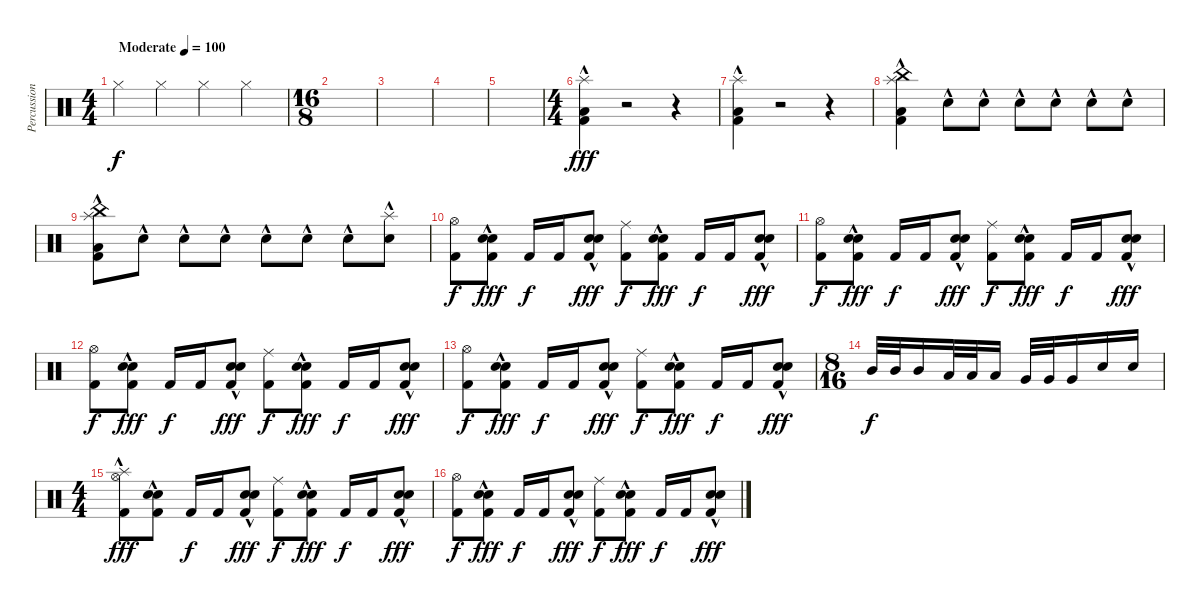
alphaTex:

\track ("Percussion" "Percussion") {instrument percussion}
\staff {score}
\articulation defaults
\ts (4 4)
\tempo (100 "Moderate")
\clef neutral
\ks c "Hi-Hat (closed)".4{dy f} "Hi-Hat (closed)".4 "Hi-Hat (closed)".4 "Hi-Hat (closed)".4
|
\ts (16 8)
|
|
|
|
\ts (4 4)
("Low Tom (hit)"{hac} "Kick (hit) 2"{hac} "Splash (hit)"{hac}).4{dy fff} r.2 r.4 |
("Low Tom (hit)"{hac} "Kick (hit) 2"{hac} "Splash (hit)"{hac}).4 r.2 r.4 |
("China (hit)"{hac} "Splash (hit)"{hac} "Kick (hit) 2"{hac} "Low Tom (hit)"{hac}).4 "Snare (hit) 2"{hac}.8 "Snare (hit) 2"{hac}.8 "Snare (hit) 2"{hac}.8 "Snare (hit) 2"{hac}.8 "Snare (hit) 2"{hac}.8 "Snare (hit) 2"{hac}.8 |
("China (hit)"{hac} "Splash (hit)"{hac} "Kick (hit) 2"{hac} "Low Tom (hit)"{hac}).8 "Snare (hit) 2"{hac}.8 "Snare (hit) 2"{hac}.8 "Snare (hit) 2"{hac}.8 "Snare (hit) 2"{hac}.8 "Snare (hit) 2"{hac}.8 "Snare (hit) 2"{hac}.8 ("Splash (hit)"{hac} "Snare (hit) 2"{hac}).8 |
("Hi-Hat (open)" "Kick (hit) 2").8{dy f} ("Electric Snare (hit)"{hac} "Snare (hit) 2"{hac} "Kick (hit) 2").8{dy fff} "Kick (hit) 2".16{dy f} "Kick (hit) 2".16 ("Electric Snare (hit)"{hac} "Snare (hit) 2"{hac} "Kick (hit) 2").8{dy fff} ("Ride (middle)" "Kick (hit) 2").8{dy f} ("Electric Snare (hit)"{hac} "Snare (hit) 2"{hac} "Kick (hit) 2").8{dy fff} "Kick (hit) 2".16{dy f} "Kick (hit) 2".16 ("Electric Snare (hit)"{hac} "Snare (hit) 2"{hac} "Kick (hit) 2").8{dy fff} |
("Hi-Hat (open)" "Kick (hit) 2").8{dy f} ("Electric Snare (hit)"{hac} "Snare (hit) 2"{hac} "Kick (hit) 2").8{dy fff} "Kick (hit) 2".16{dy f} "Kick (hit) 2".16 ("Electric Snare (hit)"{hac} "Snare (hit) 2"{hac} "Kick (hit) 2").8{dy fff} ("Ride (middle)" "Kick (hit) 2").8{dy f} ("Electric Snare (hit)"{hac} "Snare (hit) 2"{hac} "Kick (hit) 2").8{dy fff} "Kick (hit) 2".16{dy f} "Kick (hit) 2".16 ("Electric Snare (hit)"{hac} "Snare (hit) 2"{hac} "Kick (hit) 2").8{dy fff} |
("Hi-Hat (open)" "Kick (hit) 2").8{dy f} ("Electric Snare (hit)"{hac} "Snare (hit) 2"{hac} "Kick (hit) 2").8{dy fff} "Kick (hit) 2".16{dy f} "Kick (hit) 2".16 ("Electric Snare (hit)"{hac} "Snare (hit) 2"{hac} "Kick (hit) 2").8{dy fff} ("Ride (middle)" "Kick (hit) 2").8{dy f} ("Electric Snare (hit)"{hac} "Snare (hit) 2"{hac} "Kick (hit) 2").8{dy fff} "Kick (hit) 2".16{dy f} "Kick (hit) 2".16 ("Electric Snare (hit)"{hac} "Snare (hit) 2"{hac} "Kick (hit) 2").8{dy fff} |
("Hi-Hat (open)" "Kick (hit) 2").8{dy f} ("Electric Snare (hit)"{hac} "Snare (hit) 2"{hac} "Kick (hit) 2").8{dy fff} "Kick (hit) 2".16{dy f} "Kick (hit) 2".16 ("Electric Snare (hit)"{hac} "Snare (hit) 2"{hac} "Kick (hit) 2").8{dy fff} ("Ride (middle)" "Kick (hit) 2").8{dy f} ("Electric Snare (hit)"{hac} "Snare (hit) 2"{hac} "Kick (hit) 2").8{dy fff} "Kick (hit) 2".16{dy f} "Kick (hit) 2".16 ("Electric Snare (hit)"{hac} "Snare (hit) 2"{hac} "Kick (hit) 2").8{dy fff} |
\ts (8 16)
"Mid Tom (hit)".32{dy f} "Mid Tom (hit)".32 "Mid Tom (hit)".16 "Low Tom (hit)".32 "Low Tom (hit)".32 "Low Tom (hit)".16 "Very Low Tom (hit)".32 "Very Low Tom (hit)".32 "Very Low Tom (hit)".16 "Snare (hit) 2".16 "Snare (hit) 2".16 |
\ts (4 4)
("Splash (hit)"{hac} "Hi-Hat (open)"{hac} "Kick (hit) 2"{hac}).8{dy fff} ("Electric Snare (hit)"{hac} "Snare (hit) 2"{hac} "Kick (hit) 2"{hac}).8 "Kick (hit) 2".16{dy f} "Kick (hit) 2".16 ("Electric Snare (hit)"{hac} "Snare (hit) 2"{hac} "Kick (hit) 2").8{dy fff} ("Ride (middle)" "Kick (hit) 2").8{dy f} ("Electric Snare (hit)"{hac} "Snare (hit) 2"{hac} "Kick (hit) 2").8{dy fff} "Kick (hit) 2".16{dy f} "Kick (hit) 2".16 ("Electric Snare (hit)"{hac} "Snare (hit) 2"{hac} "Kick (hit) 2").8{dy fff} |
("Hi-Hat (open)" "Kick (hit) 2").8{dy f} ("Electric Snare (hit)"{hac} "Snare (hit) 2"{hac} "Kick (hit) 2").8{dy fff} "Kick (hit) 2".16{dy f} "Kick (hit) 2".16 ("Electric Snare (hit)"{hac} "Snare (hit) 2"{hac} "Kick (hit) 2").8{dy fff} ("Ride (middle)" "Kick (hit) 2").8{dy f} ("Electric Snare (hit)"{hac} "Snare (hit) 2"{hac} "Kick (hit) 2").8{dy fff} "Kick (hit) 2".16{dy f} "Kick (hit) 2".16 ("Electric Snare (hit)"{hac} "Snare (hit) 2"{hac} "Kick (hit) 2").8{dy fff}
